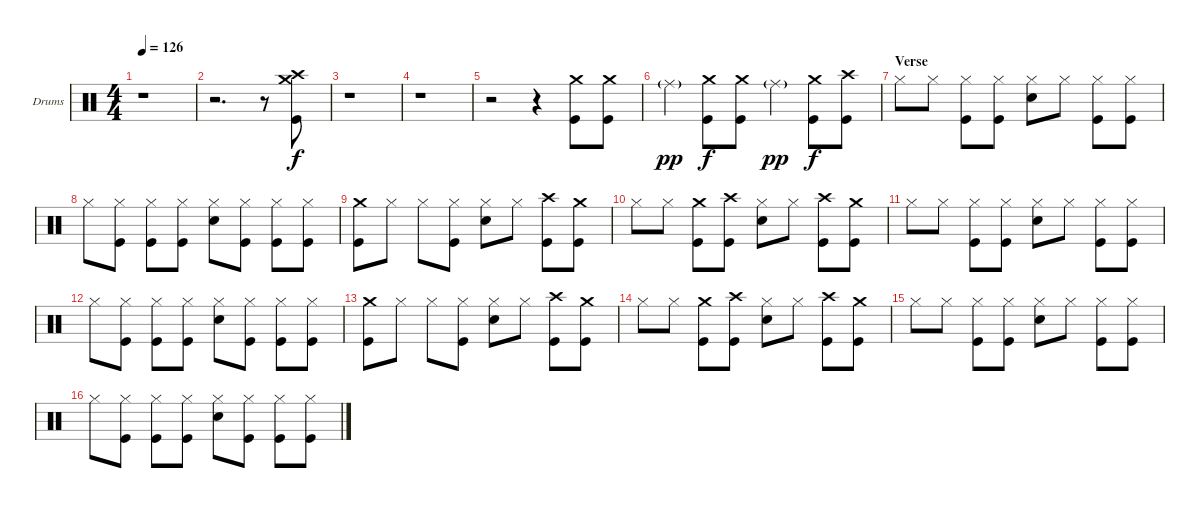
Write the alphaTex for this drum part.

\bracketExtendMode groupsimilarinstruments
\firstSystemTrackNameOrientation horizontal
\otherSystemsTrackNameOrientation horizontal
\track ("Drumkit" "Drums") {instrument percussion}
\staff {score}
\articulation defaults
\ts (4 4)
\tempo 126
\clef neutral
\ks c
r.1{dy pp} |
r.2{d} r.8 ("Crash medium (hit)" "Crash high (hit)" "Kick (hit)").8{dy f} |
r.1 |
r.1 |
r.2 r.4 ("Crash medium (hit)" "Kick (hit)").8 ("Crash medium (hit)" "Kick (hit)").8 |
"Ride (middle)"{g}.4{dy pp} ("Crash medium (hit)" "Kick (hit)").8{dy f} ("Crash medium (hit)" "Kick (hit)").8 "Ride (middle)"{g}.4{dy pp} ("Crash medium (hit)" "Kick (hit)").8{dy f} ("Crash high (hit)" "Kick (hit)").8 |
\section ("" "Verse")
"Hi-Hat (closed)".8 "Hi-Hat (closed)".8 ("Hi-Hat (closed)" "Kick (hit)").8 ("Hi-Hat (closed)" "Kick (hit)").8 ("Hi-Hat (closed)" "Snare (hit) 2").8 "Hi-Hat (closed)".8 ("Hi-Hat (closed)" "Kick (hit)").8 ("Hi-Hat (closed)" "Kick (hit)").8 |
"Hi-Hat (closed)".8 ("Hi-Hat (closed)" "Kick (hit)").8 ("Hi-Hat (closed)" "Kick (hit)").8 ("Hi-Hat (closed)" "Kick (hit)").8 ("Hi-Hat (closed)" "Snare (hit) 2").8 ("Hi-Hat (closed)" "Kick (hit)").8 ("Hi-Hat (closed)" "Kick (hit)").8 ("Hi-Hat (closed)" "Kick (hit)").8 |
("Crash medium (hit)" "Kick (hit)").8 "Hi-Hat (closed)".8 "Hi-Hat (closed)".8 ("Hi-Hat (closed)" "Kick (hit)").8 ("Hi-Hat (closed)" "Snare (hit) 2").8 "Hi-Hat (closed)".8 ("Crash high (hit)" "Kick (hit)").8 ("Crash medium (hit)" "Kick (hit)").8 |
"Hi-Hat (closed)".8 "Hi-Hat (closed)".8 ("Crash medium (hit)" "Kick (hit)").8 ("Crash high (hit)" "Kick (hit)").8 ("Hi-Hat (closed)" "Snare (hit) 2").8 "Hi-Hat (closed)".8 ("Crash high (hit)" "Kick (hit)").8 ("Crash medium (hit)" "Kick (hit)").8 |
"Hi-Hat (closed)".8 "Hi-Hat (closed)".8 ("Hi-Hat (closed)" "Kick (hit)").8 ("Hi-Hat (closed)" "Kick (hit)").8 ("Hi-Hat (closed)" "Snare (hit) 2").8 "Hi-Hat (closed)".8 ("Hi-Hat (closed)" "Kick (hit)").8 ("Hi-Hat (closed)" "Kick (hit)").8 |
"Hi-Hat (closed)".8 ("Hi-Hat (closed)" "Kick (hit)").8 ("Hi-Hat (closed)" "Kick (hit)").8 ("Hi-Hat (closed)" "Kick (hit)").8 ("Hi-Hat (closed)" "Snare (hit) 2").8 ("Hi-Hat (closed)" "Kick (hit)").8 ("Hi-Hat (closed)" "Kick (hit)").8 ("Hi-Hat (closed)" "Kick (hit)").8 |
("Crash medium (hit)" "Kick (hit)").8 "Hi-Hat (closed)".8 "Hi-Hat (closed)".8 ("Hi-Hat (closed)" "Kick (hit)").8 ("Hi-Hat (closed)" "Snare (hit) 2").8 "Hi-Hat (closed)".8 ("Crash high (hit)" "Kick (hit)").8 ("Crash medium (hit)" "Kick (hit)").8 |
"Hi-Hat (closed)".8 "Hi-Hat (closed)".8 ("Crash medium (hit)" "Kick (hit)").8 ("Crash high (hit)" "Kick (hit)").8 ("Hi-Hat (closed)" "Snare (hit) 2").8 "Hi-Hat (closed)".8 ("Crash high (hit)" "Kick (hit)").8 ("Crash medium (hit)" "Kick (hit)").8 |
"Hi-Hat (closed)".8 "Hi-Hat (closed)".8 ("Hi-Hat (closed)" "Kick (hit)").8 ("Hi-Hat (closed)" "Kick (hit)").8 ("Hi-Hat (closed)" "Snare (hit) 2").8 "Hi-Hat (closed)".8 ("Hi-Hat (closed)" "Kick (hit)").8 ("Hi-Hat (closed)" "Kick (hit)").8 |
"Hi-Hat (closed)".8 ("Hi-Hat (closed)" "Kick (hit)").8 ("Hi-Hat (closed)" "Kick (hit)").8 ("Hi-Hat (closed)" "Kick (hit)").8 ("Hi-Hat (closed)" "Snare (hit) 2").8 ("Hi-Hat (closed)" "Kick (hit)").8 ("Hi-Hat (closed)" "Kick (hit)").8 ("Hi-Hat (closed)" "Kick (hit)").8
